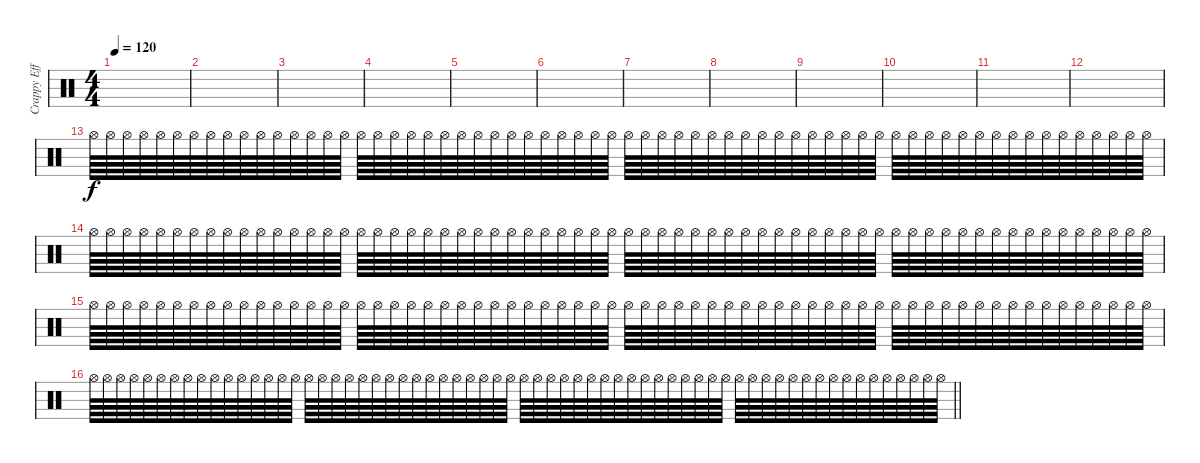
\track ("Crappy Effects" "Crappy Eff") {instrument percussion}
\staff {score}
\articulation defaults
\ts (4 4)
\tempo 120
\clef neutral
\ks c
|
|
|
|
|
|
|
|
|
|
|
|
"Hi-Hat (open)".64 "Hi-Hat (open)".64 "Hi-Hat (open)".64 "Hi-Hat (open)".64 "Hi-Hat (open)".64 "Hi-Hat (open)".64 "Hi-Hat (open)".64 "Hi-Hat (open)".64 "Hi-Hat (open)".64 "Hi-Hat (open)".64 "Hi-Hat (open)".64 "Hi-Hat (open)".64 "Hi-Hat (open)".64 "Hi-Hat (open)".64 "Hi-Hat (open)".64 "Hi-Hat (open)".64 "Hi-Hat (open)".64 "Hi-Hat (open)".64 "Hi-Hat (open)".64 "Hi-Hat (open)".64 "Hi-Hat (open)".64 "Hi-Hat (open)".64 "Hi-Hat (open)".64 "Hi-Hat (open)".64 "Hi-Hat (open)".64 "Hi-Hat (open)".64 "Hi-Hat (open)".64 "Hi-Hat (open)".64 "Hi-Hat (open)".64 "Hi-Hat (open)".64 "Hi-Hat (open)".64 "Hi-Hat (open)".64 "Hi-Hat (open)".64 "Hi-Hat (open)".64 "Hi-Hat (open)".64 "Hi-Hat (open)".64 "Hi-Hat (open)".64 "Hi-Hat (open)".64 "Hi-Hat (open)".64 "Hi-Hat (open)".64 "Hi-Hat (open)".64 "Hi-Hat (open)".64 "Hi-Hat (open)".64 "Hi-Hat (open)".64 "Hi-Hat (open)".64 "Hi-Hat (open)".64 "Hi-Hat (open)".64 "Hi-Hat (open)".64 "Hi-Hat (open)".64 "Hi-Hat (open)".64 "Hi-Hat (open)".64 "Hi-Hat (open)".64 "Hi-Hat (open)".64 "Hi-Hat (open)".64 "Hi-Hat (open)".64 "Hi-Hat (open)".64 "Hi-Hat (open)".64 "Hi-Hat (open)".64 "Hi-Hat (open)".64 "Hi-Hat (open)".64 "Hi-Hat (open)".64 "Hi-Hat (open)".64 "Hi-Hat (open)".64 "Hi-Hat (open)".64 |
"Hi-Hat (open)".64 "Hi-Hat (open)".64 "Hi-Hat (open)".64 "Hi-Hat (open)".64 "Hi-Hat (open)".64 "Hi-Hat (open)".64 "Hi-Hat (open)".64 "Hi-Hat (open)".64 "Hi-Hat (open)".64 "Hi-Hat (open)".64 "Hi-Hat (open)".64 "Hi-Hat (open)".64 "Hi-Hat (open)".64 "Hi-Hat (open)".64 "Hi-Hat (open)".64 "Hi-Hat (open)".64 "Hi-Hat (open)".64 "Hi-Hat (open)".64 "Hi-Hat (open)".64 "Hi-Hat (open)".64 "Hi-Hat (open)".64 "Hi-Hat (open)".64 "Hi-Hat (open)".64 "Hi-Hat (open)".64 "Hi-Hat (open)".64 "Hi-Hat (open)".64 "Hi-Hat (open)".64 "Hi-Hat (open)".64 "Hi-Hat (open)".64 "Hi-Hat (open)".64 "Hi-Hat (open)".64 "Hi-Hat (open)".64 "Hi-Hat (open)".64 "Hi-Hat (open)".64 "Hi-Hat (open)".64 "Hi-Hat (open)".64 "Hi-Hat (open)".64 "Hi-Hat (open)".64 "Hi-Hat (open)".64 "Hi-Hat (open)".64 "Hi-Hat (open)".64 "Hi-Hat (open)".64 "Hi-Hat (open)".64 "Hi-Hat (open)".64 "Hi-Hat (open)".64 "Hi-Hat (open)".64 "Hi-Hat (open)".64 "Hi-Hat (open)".64 "Hi-Hat (open)".64 "Hi-Hat (open)".64 "Hi-Hat (open)".64 "Hi-Hat (open)".64 "Hi-Hat (open)".64 "Hi-Hat (open)".64 "Hi-Hat (open)".64 "Hi-Hat (open)".64 "Hi-Hat (open)".64 "Hi-Hat (open)".64 "Hi-Hat (open)".64 "Hi-Hat (open)".64 "Hi-Hat (open)".64 "Hi-Hat (open)".64 "Hi-Hat (open)".64 "Hi-Hat (open)".64 |
"Hi-Hat (open)".64 "Hi-Hat (open)".64 "Hi-Hat (open)".64 "Hi-Hat (open)".64 "Hi-Hat (open)".64 "Hi-Hat (open)".64 "Hi-Hat (open)".64 "Hi-Hat (open)".64 "Hi-Hat (open)".64 "Hi-Hat (open)".64 "Hi-Hat (open)".64 "Hi-Hat (open)".64 "Hi-Hat (open)".64 "Hi-Hat (open)".64 "Hi-Hat (open)".64 "Hi-Hat (open)".64 "Hi-Hat (open)".64 "Hi-Hat (open)".64 "Hi-Hat (open)".64 "Hi-Hat (open)".64 "Hi-Hat (open)".64 "Hi-Hat (open)".64 "Hi-Hat (open)".64 "Hi-Hat (open)".64 "Hi-Hat (open)".64 "Hi-Hat (open)".64 "Hi-Hat (open)".64 "Hi-Hat (open)".64 "Hi-Hat (open)".64 "Hi-Hat (open)".64 "Hi-Hat (open)".64 "Hi-Hat (open)".64 "Hi-Hat (open)".64 "Hi-Hat (open)".64 "Hi-Hat (open)".64 "Hi-Hat (open)".64 "Hi-Hat (open)".64 "Hi-Hat (open)".64 "Hi-Hat (open)".64 "Hi-Hat (open)".64 "Hi-Hat (open)".64 "Hi-Hat (open)".64 "Hi-Hat (open)".64 "Hi-Hat (open)".64 "Hi-Hat (open)".64 "Hi-Hat (open)".64 "Hi-Hat (open)".64 "Hi-Hat (open)".64 "Hi-Hat (open)".64 "Hi-Hat (open)".64 "Hi-Hat (open)".64 "Hi-Hat (open)".64 "Hi-Hat (open)".64 "Hi-Hat (open)".64 "Hi-Hat (open)".64 "Hi-Hat (open)".64 "Hi-Hat (open)".64 "Hi-Hat (open)".64 "Hi-Hat (open)".64 "Hi-Hat (open)".64 "Hi-Hat (open)".64 "Hi-Hat (open)".64 "Hi-Hat (open)".64 "Hi-Hat (open)".64 |
\barLineRight lightlight "Hi-Hat (open)".64 "Hi-Hat (open)".64 "Hi-Hat (open)".64 "Hi-Hat (open)".64 "Hi-Hat (open)".64 "Hi-Hat (open)".64 "Hi-Hat (open)".64 "Hi-Hat (open)".64 "Hi-Hat (open)".64 "Hi-Hat (open)".64 "Hi-Hat (open)".64 "Hi-Hat (open)".64 "Hi-Hat (open)".64 "Hi-Hat (open)".64 "Hi-Hat (open)".64 "Hi-Hat (open)".64 "Hi-Hat (open)".64 "Hi-Hat (open)".64 "Hi-Hat (open)".64 "Hi-Hat (open)".64 "Hi-Hat (open)".64 "Hi-Hat (open)".64 "Hi-Hat (open)".64 "Hi-Hat (open)".64 "Hi-Hat (open)".64 "Hi-Hat (open)".64 "Hi-Hat (open)".64 "Hi-Hat (open)".64 "Hi-Hat (open)".64 "Hi-Hat (open)".64 "Hi-Hat (open)".64 "Hi-Hat (open)".64 "Hi-Hat (open)".64 "Hi-Hat (open)".64 "Hi-Hat (open)".64 "Hi-Hat (open)".64 "Hi-Hat (open)".64 "Hi-Hat (open)".64 "Hi-Hat (open)".64 "Hi-Hat (open)".64 "Hi-Hat (open)".64 "Hi-Hat (open)".64 "Hi-Hat (open)".64 "Hi-Hat (open)".64 "Hi-Hat (open)".64 "Hi-Hat (open)".64 "Hi-Hat (open)".64 "Hi-Hat (open)".64 "Hi-Hat (open)".64 "Hi-Hat (open)".64 "Hi-Hat (open)".64 "Hi-Hat (open)".64 "Hi-Hat (open)".64 "Hi-Hat (open)".64 "Hi-Hat (open)".64 "Hi-Hat (open)".64 "Hi-Hat (open)".64 "Hi-Hat (open)".64 "Hi-Hat (open)".64 "Hi-Hat (open)".64 "Hi-Hat (open)".64 "Hi-Hat (open)".64 "Hi-Hat (open)".64 "Hi-Hat (open)".64
